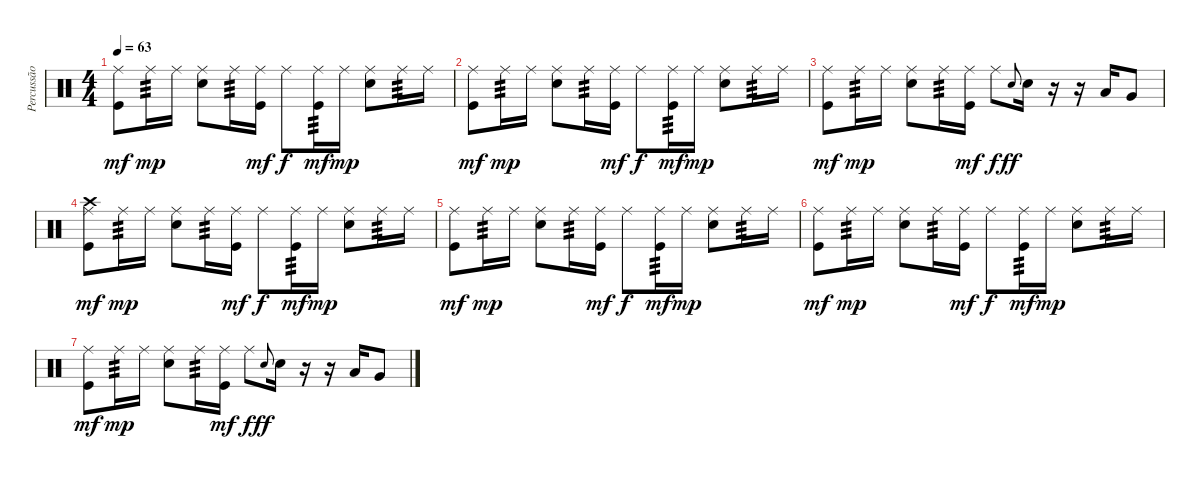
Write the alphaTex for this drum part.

\track ("Percussão" "Percussão") {instrument percussion}
\staff {score}
\articulation defaults
\ts (4 4)
\tempo 63
\clef neutral
\ks c
("Ride (middle)" "Kick (hit)").8{dy mf} "Ride (middle)".16{tp 3 dy mp} "Ride (middle)".16 ("Ride (middle)" "Snare (hit) 2").8 "Ride (middle)".16{tp 3} ("Ride (middle)" "Kick (hit)").16{dy mf} "Ride (middle)".8{dy f} ("Ride (middle)" "Kick (hit)").16{tp 3 dy mf} "Ride (middle)".16{dy mp} ("Ride (middle)" "Snare (hit) 2").8 "Ride (middle)".16{tp 3} "Ride (middle)".16 |
("Ride (middle)" "Kick (hit)").8{dy mf} "Ride (middle)".16{tp 3 dy mp} "Ride (middle)".16 ("Ride (middle)" "Snare (hit) 2").8 "Ride (middle)".16{tp 3} ("Ride (middle)" "Kick (hit)").16{dy mf} "Ride (middle)".8{dy f} ("Ride (middle)" "Kick (hit)").16{tp 3 dy mf} "Ride (middle)".16{dy mp} ("Ride (middle)" "Snare (hit) 2").8 "Ride (middle)".16{tp 3} "Ride (middle)".16 |
("Ride (middle)" "Kick (hit)").8{dy mf} "Ride (middle)".16{tp 3 dy mp} "Ride (middle)".16 ("Ride (middle)" "Snare (hit) 2").8 "Ride (middle)".16{tp 3} ("Ride (middle)" "Kick (hit)").16{dy mf} "Ride (middle)".8{dy f} "Snare (hit) 2"{h x}.8{gr onbeat dy ff} "Snare (hit) 2".16 r.16 r.16 "Low Tom (hit)".16 "Very Low Tom (hit)".8 |
("Ride (middle)" "Crash high (hit)" "Kick (hit)").8{dy mf} "Ride (middle)".16{tp 3 dy mp} "Ride (middle)".16 ("Ride (middle)" "Snare (hit) 2").8 "Ride (middle)".16{tp 3} ("Ride (middle)" "Kick (hit)").16{dy mf} "Ride (middle)".8{dy f} ("Ride (middle)" "Kick (hit)").16{tp 3 dy mf} "Ride (middle)".16{dy mp} ("Ride (middle)" "Snare (hit) 2").8 "Ride (middle)".16{tp 3} "Ride (middle)".16 |
("Ride (middle)" "Kick (hit)").8{dy mf} "Ride (middle)".16{tp 3 dy mp} "Ride (middle)".16 ("Ride (middle)" "Snare (hit) 2").8 "Ride (middle)".16{tp 3} ("Ride (middle)" "Kick (hit)").16{dy mf} "Ride (middle)".8{dy f} ("Ride (middle)" "Kick (hit)").16{tp 3 dy mf} "Ride (middle)".16{dy mp} ("Ride (middle)" "Snare (hit) 2").8 "Ride (middle)".16{tp 3} "Ride (middle)".16 |
("Ride (middle)" "Kick (hit)").8{dy mf} "Ride (middle)".16{tp 3 dy mp} "Ride (middle)".16 ("Ride (middle)" "Snare (hit) 2").8 "Ride (middle)".16{tp 3} ("Ride (middle)" "Kick (hit)").16{dy mf} "Ride (middle)".8{dy f} ("Ride (middle)" "Kick (hit)").16{tp 3 dy mf} "Ride (middle)".16{dy mp} ("Ride (middle)" "Snare (hit) 2").8 "Ride (middle)".16{tp 3} "Ride (middle)".16 |
("Ride (middle)" "Kick (hit)").8{dy mf} "Ride (middle)".16{tp 3 dy mp} "Ride (middle)".16 ("Ride (middle)" "Snare (hit) 2").8 "Ride (middle)".16{tp 3} ("Ride (middle)" "Kick (hit)").16{dy mf} "Ride (middle)".8{dy f} "Snare (hit) 2"{h x}.8{gr onbeat dy ff} "Snare (hit) 2".16 r.16 r.16 "Low Tom (hit)".16 "Very Low Tom (hit)".8
